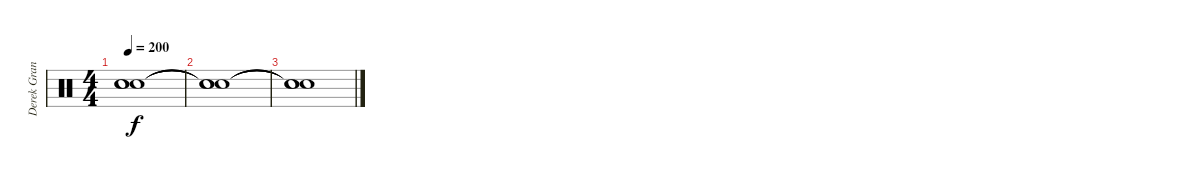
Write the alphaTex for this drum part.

\track ("Derek Grant" "Derek Gran") {instrument percussion}
\staff {score}
\articulation defaults
\ts (4 4)
\tempo 200
\clef neutral
\ks c
("Snare (hit)"{t} "Snare (hit)"{t} "Snare (hit)"{t}).1{dy f} |
("Snare (hit)"{t} "Snare (hit)"{t} "Snare (hit)"{t}).1 |
("Snare (hit)"{t} "Snare (hit)"{t} "Snare (hit)"{t}).1
